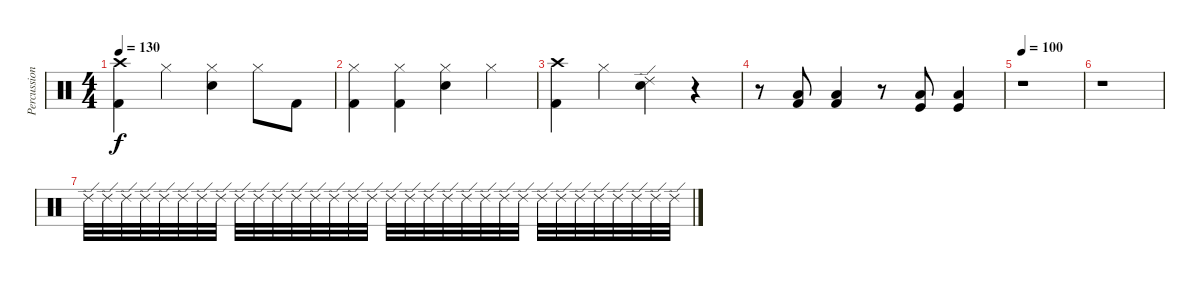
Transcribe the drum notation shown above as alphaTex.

\track ("Percussion" "Percussion") {instrument percussion}
\staff {score}
\articulation defaults
\ts (4 4)
\tempo 130
\clef neutral
\ks c
("Crash high (hit)" "Kick (hit) 2").4{dy f} "Hi-Hat (closed)".4 ("Hi-Hat (closed)" "Snare (hit) 2").4 "Hi-Hat (closed)".8 "Kick (hit) 2".8 |
("Hi-Hat (closed)" "Kick (hit) 2").4 ("Hi-Hat (closed)" "Kick (hit) 2").4 ("Hi-Hat (closed)" "Snare (hit) 2").4 "Hi-Hat (closed)".4 |
("Kick (hit) 2" "Crash high (hit)").4 "Hi-Hat (closed)".4 ("Ride (edge) 2" "Snare (hit) 2").4 r.4 |
r.8 ("Low Floor Tom (hit)" "Kick (hit) 2").8 ("Low Floor Tom (hit)" "Kick (hit) 2").4 r.8 ("Low Floor Tom (hit)" "Kick (hit)").8 ("Low Floor Tom (hit)" "Kick (hit)").4 |
\tempo 100
r.1 |
r.1 |
"Ride (edge) 2".32{volume 0} "Ride (edge) 2".32 "Ride (edge) 2".32 "Ride (edge) 2".32 "Ride (edge) 2".32 "Ride (edge) 2".32 "Ride (edge) 2".32 "Ride (edge) 2".32 "Ride (edge) 2".32 "Ride (edge) 2".32 "Ride (edge) 2".32 "Ride (edge) 2".32 "Ride (edge) 2".32 "Ride (edge) 2".32 "Ride (edge) 2".32 "Ride (edge) 2".32 "Ride (edge) 2".32 "Ride (edge) 2".32 "Ride (edge) 2".32 "Ride (edge) 2".32 "Ride (edge) 2".32 "Ride (edge) 2".32 "Ride (edge) 2".32 "Ride (edge) 2".32 "Ride (edge) 2".32 "Ride (edge) 2".32 "Ride (edge) 2".32 "Ride (edge) 2".32 "Ride (edge) 2".32 "Ride (edge) 2".32 "Ride (edge) 2".32 "Ride (edge) 2".32
